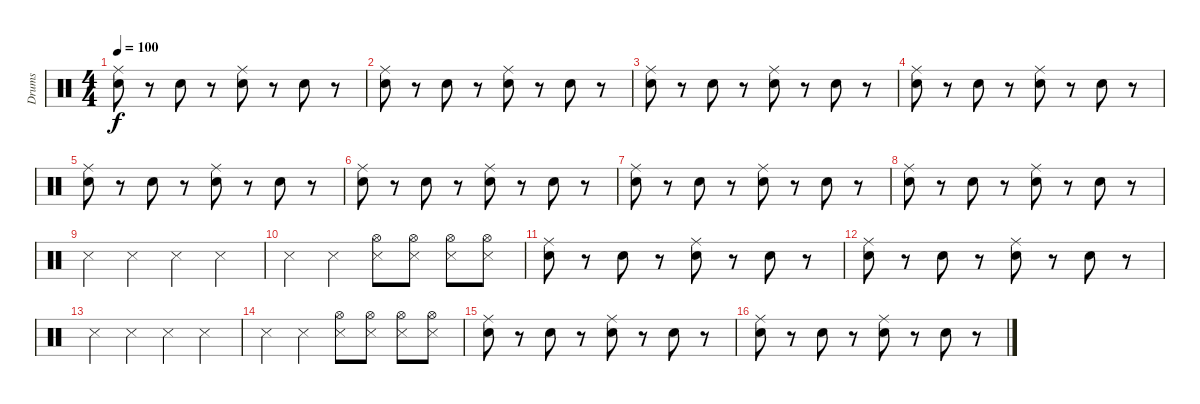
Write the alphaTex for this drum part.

\track ("Drums" "Drums") {instrument percussion}
\staff {score}
\articulation defaults
\ts (4 4)
\tempo 100
\clef neutral
\ks c
("Ride (middle)" "Snare (hit) 2").8{dy f} r.8 "Snare (hit) 2".8 r.8 ("Ride (middle)" "Snare (hit) 2").8 r.8 "Snare (hit) 2".8 r.8 |
("Ride (middle)" "Snare (hit) 2").8 r.8 "Snare (hit) 2".8 r.8 ("Ride (middle)" "Snare (hit) 2").8 r.8 "Snare (hit) 2".8 r.8 |
("Ride (middle)" "Snare (hit) 2").8 r.8 "Snare (hit) 2".8 r.8 ("Ride (middle)" "Snare (hit) 2").8 r.8 "Snare (hit) 2".8 r.8 |
("Ride (middle)" "Snare (hit) 2").8 r.8 "Snare (hit) 2".8 r.8 ("Ride (middle)" "Snare (hit) 2").8 r.8 "Snare (hit) 2".8 r.8 |
("Ride (middle)" "Snare (hit) 2").8 r.8 "Snare (hit) 2".8 r.8 ("Ride (middle)" "Snare (hit) 2").8 r.8 "Snare (hit) 2".8 r.8 |
("Ride (middle)" "Snare (hit) 2").8 r.8 "Snare (hit) 2".8 r.8 ("Ride (middle)" "Snare (hit) 2").8 r.8 "Snare (hit) 2".8 r.8 |
("Ride (middle)" "Snare (hit) 2").8 r.8 "Snare (hit) 2".8 r.8 ("Ride (middle)" "Snare (hit) 2").8 r.8 "Snare (hit) 2".8 r.8 |
("Ride (middle)" "Snare (hit) 2").8 r.8 "Snare (hit) 2".8 r.8 ("Ride (middle)" "Snare (hit) 2").8 r.8 "Snare (hit) 2".8 r.8 |
"Snare (side stick) 3".4 "Snare (side stick) 3".4 "Snare (side stick) 3".4 "Snare (side stick) 3".4 |
"Snare (side stick) 3".4 "Snare (side stick) 3".4 ("Snare (side stick) 3" "Hi-Hat (open)").8 ("Snare (side stick) 3" "Hi-Hat (open)").8 ("Snare (side stick) 3" "Hi-Hat (open)").8 ("Snare (side stick) 3" "Hi-Hat (open)").8 |
("Ride (middle)" "Snare (hit) 2").8 r.8 "Snare (hit) 2".8 r.8 ("Ride (middle)" "Snare (hit) 2").8 r.8 "Snare (hit) 2".8 r.8 |
("Ride (middle)" "Snare (hit) 2").8 r.8 "Snare (hit) 2".8 r.8 ("Ride (middle)" "Snare (hit) 2").8 r.8 "Snare (hit) 2".8 r.8 |
"Snare (side stick) 3".4 "Snare (side stick) 3".4 "Snare (side stick) 3".4 "Snare (side stick) 3".4 |
"Snare (side stick) 3".4 "Snare (side stick) 3".4 ("Snare (side stick) 3" "Hi-Hat (open)").8 ("Snare (side stick) 3" "Hi-Hat (open)").8 ("Snare (side stick) 3" "Hi-Hat (open)").8 ("Snare (side stick) 3" "Hi-Hat (open)").8 |
("Ride (middle)" "Snare (hit) 2").8 r.8 "Snare (hit) 2".8 r.8 ("Ride (middle)" "Snare (hit) 2").8 r.8 "Snare (hit) 2".8 r.8 |
("Ride (middle)" "Snare (hit) 2").8 r.8 "Snare (hit) 2".8 r.8 ("Ride (middle)" "Snare (hit) 2").8 r.8 "Snare (hit) 2".8 r.8
